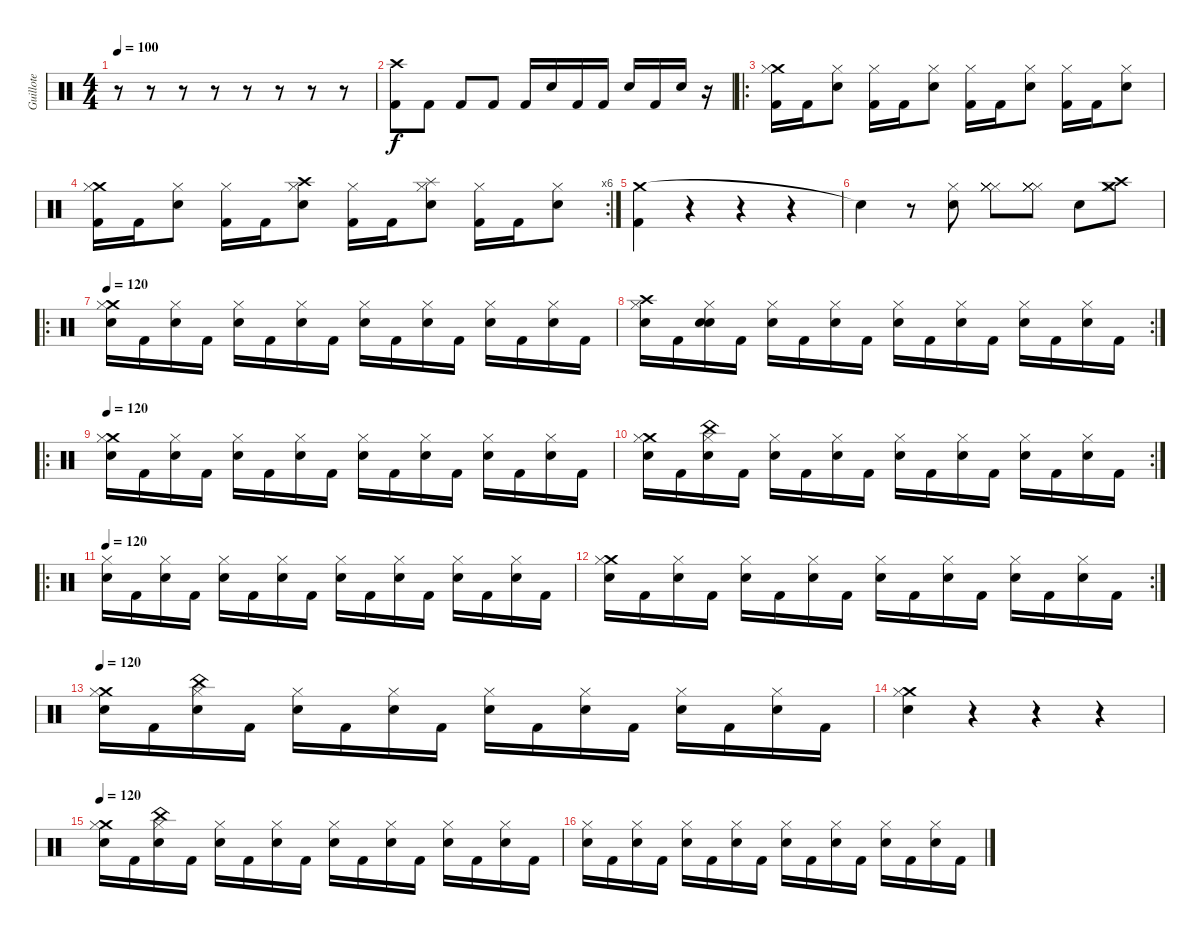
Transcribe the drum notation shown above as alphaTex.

\track ("Guillote" "Guillote") {instrument percussion}
\staff {score}
\articulation defaults
\ts (4 4)
\tempo 100
\clef neutral
\ks c
r.8{dy f} r.8 r.8 r.8 r.8 r.8 r.8 r.8 |
("Crash high (hit)" "Kick (hit) 2").8 "Kick (hit) 2".8 "Kick (hit) 2".8 "Kick (hit) 2".8 "Kick (hit) 2".16 "Electric Snare (hit)".16 "Kick (hit) 2".16 "Kick (hit) 2".16 "Electric Snare (hit)".16 "Kick (hit) 2".16 "Electric Snare (hit)".16 r.16 |
\ro
("Crash medium (hit)" "Hi-Hat (closed)" "Kick (hit) 2").16 "Kick (hit) 2".16 ("Hi-Hat (closed)" "Electric Snare (hit)").8 ("Hi-Hat (closed)" "Kick (hit) 2").16 "Kick (hit) 2".16 ("Hi-Hat (closed)" "Electric Snare (hit)").8 ("Hi-Hat (closed)" "Kick (hit) 2").16 "Kick (hit) 2".16 ("Hi-Hat (closed)" "Electric Snare (hit)").8 ("Hi-Hat (closed)" "Kick (hit) 2").16 "Kick (hit) 2".16 ("Hi-Hat (closed)" "Electric Snare (hit)").8 |
\rc 6
("Crash medium (hit)" "Hi-Hat (closed)" "Kick (hit) 2").16 "Kick (hit) 2".16 ("Hi-Hat (closed)" "Electric Snare (hit)").8 ("Hi-Hat (closed)" "Kick (hit) 2").16 "Kick (hit) 2".16 ("Crash high (hit)" "Hi-Hat (closed)" "Electric Snare (hit)").8 ("Hi-Hat (closed)" "Kick (hit) 2").16 "Kick (hit) 2".16 ("Splash (hit)" "Hi-Hat (closed)" "Electric Snare (hit)").8 ("Hi-Hat (closed)" "Kick (hit) 2").16 "Kick (hit) 2".16 ("Hi-Hat (closed)" "Electric Snare (hit)").8 |
("Crash medium (hit)" "Kick (hit) 2").4 r.4 r.4 r.4 |
"Snare (hit)"{t}.4 r.8 ("Hi-Hat (closed)" "Electric Snare (hit)").8 ("Hi-Hat (closed)" "Hi-Hat (closed)" "Hi-Hat (closed)" "Hi-Hat (closed)").8 ("Hi-Hat (closed)" "Hi-Hat (closed)" "Hi-Hat (closed)" "Hi-Hat (closed)").8 "Electric Snare (hit)".8 ("Crash medium (hit)" "Crash high (hit)" "Hi-Hat (closed)").8 |
\ro
\tempo 120
("Crash medium (hit)" "Hi-Hat (closed)" "Electric Snare (hit)").16 "Kick (hit) 2".16 ("Hi-Hat (closed)" "Electric Snare (hit)").16 "Kick (hit) 2".16 ("Hi-Hat (closed)" "Electric Snare (hit)").16 "Kick (hit) 2".16 ("Hi-Hat (closed)" "Electric Snare (hit)").16 "Kick (hit) 2".16 ("Hi-Hat (closed)" "Electric Snare (hit)").16 "Kick (hit) 2".16 ("Hi-Hat (closed)" "Electric Snare (hit)").16 "Kick (hit) 2".16 ("Hi-Hat (closed)" "Electric Snare (hit)").16 "Kick (hit) 2".16 ("Hi-Hat (closed)" "Electric Snare (hit)").16 "Kick (hit) 2".16 |
\rc 2
("Crash high (hit)" "Hi-Hat (closed)" "Electric Snare (hit)").16 "Kick (hit) 2".16 ("Hi-Hat (closed)" "Electric Snare (hit)" "Electric Snare (hit)").16 "Kick (hit) 2".16 ("Hi-Hat (closed)" "Electric Snare (hit)").16 "Kick (hit) 2".16 ("Hi-Hat (closed)" "Electric Snare (hit)").16 "Kick (hit) 2".16 ("Hi-Hat (closed)" "Electric Snare (hit)").16 "Kick (hit) 2".16 ("Hi-Hat (closed)" "Electric Snare (hit)").16 "Kick (hit) 2".16 ("Hi-Hat (closed)" "Electric Snare (hit)").16 "Kick (hit) 2".16 ("Hi-Hat (closed)" "Electric Snare (hit)").16 "Kick (hit) 2".16 |
\ro
\tempo 120
("Crash medium (hit)" "Hi-Hat (closed)" "Electric Snare (hit)").16 "Kick (hit) 2".16 ("Hi-Hat (closed)" "Electric Snare (hit)").16 "Kick (hit) 2".16 ("Hi-Hat (closed)" "Electric Snare (hit)").16 "Kick (hit) 2".16 ("Hi-Hat (closed)" "Electric Snare (hit)").16 "Kick (hit) 2".16 ("Hi-Hat (closed)" "Electric Snare (hit)").16 "Kick (hit) 2".16 ("Hi-Hat (closed)" "Electric Snare (hit)").16 "Kick (hit) 2".16 ("Hi-Hat (closed)" "Electric Snare (hit)").16 "Kick (hit) 2".16 ("Hi-Hat (closed)" "Electric Snare (hit)").16 "Kick (hit) 2".16 |
\rc 2
("Electric Snare (hit)" "Crash medium (hit)" "Hi-Hat (closed)").16 "Kick (hit) 2".16 ("Hi-Hat (closed)" "Electric Snare (hit)" "China (hit)").16 "Kick (hit) 2".16 ("Electric Snare (hit)" "Hi-Hat (closed)").16 "Kick (hit) 2".16 ("Electric Snare (hit)" "Hi-Hat (closed)").16 "Kick (hit) 2".16 ("Electric Snare (hit)" "Hi-Hat (closed)").16 "Kick (hit) 2".16 ("Hi-Hat (closed)" "Electric Snare (hit)").16 "Kick (hit) 2".16 ("Hi-Hat (closed)" "Electric Snare (hit)").16 "Kick (hit) 2".16 ("Hi-Hat (closed)" "Electric Snare (hit)").16 "Kick (hit) 2".16 |
\ro
\tempo 120
("Electric Snare (hit)" "Hi-Hat (closed)").16 "Kick (hit) 2".16 ("Hi-Hat (closed)" "Electric Snare (hit)").16 "Kick (hit) 2".16 ("Electric Snare (hit)" "Hi-Hat (closed)").16 "Kick (hit) 2".16 ("Electric Snare (hit)" "Hi-Hat (closed)").16 "Kick (hit) 2".16 ("Electric Snare (hit)" "Hi-Hat (closed)").16 "Kick (hit) 2".16 ("Hi-Hat (closed)" "Electric Snare (hit)").16 "Kick (hit) 2".16 ("Hi-Hat (closed)" "Electric Snare (hit)").16 "Kick (hit) 2".16 ("Hi-Hat (closed)" "Electric Snare (hit)").16 "Kick (hit) 2".16 |
\rc 2
("Electric Snare (hit)" "Crash medium (hit)" "Hi-Hat (closed)").16 "Kick (hit) 2".16 ("Hi-Hat (closed)" "Electric Snare (hit)").16 "Kick (hit) 2".16 ("Electric Snare (hit)" "Hi-Hat (closed)").16 "Kick (hit) 2".16 ("Electric Snare (hit)" "Hi-Hat (closed)").16 "Kick (hit) 2".16 ("Electric Snare (hit)" "Hi-Hat (closed)").16 "Kick (hit) 2".16 ("Hi-Hat (closed)" "Electric Snare (hit)").16 "Kick (hit) 2".16 ("Hi-Hat (closed)" "Electric Snare (hit)").16 "Kick (hit) 2".16 ("Hi-Hat (closed)" "Electric Snare (hit)").16 "Kick (hit) 2".16 |
\tempo 120
("Electric Snare (hit)" "Crash medium (hit)" "Hi-Hat (closed)").16 "Kick (hit) 2".16 ("Hi-Hat (closed)" "Electric Snare (hit)" "China (hit)").16 "Kick (hit) 2".16 ("Electric Snare (hit)" "Hi-Hat (closed)").16 "Kick (hit) 2".16 ("Electric Snare (hit)" "Hi-Hat (closed)").16 "Kick (hit) 2".16 ("Electric Snare (hit)" "Hi-Hat (closed)").16 "Kick (hit) 2".16 ("Hi-Hat (closed)" "Electric Snare (hit)").16 "Kick (hit) 2".16 ("Hi-Hat (closed)" "Electric Snare (hit)").16 "Kick (hit) 2".16 ("Hi-Hat (closed)" "Electric Snare (hit)").16 "Kick (hit) 2".16 |
("Electric Snare (hit)" "Crash medium (hit)" "Hi-Hat (closed)").4 r.4 r.4 r.4 |
\tempo 120
("Electric Snare (hit)" "Crash medium (hit)" "Hi-Hat (closed)").16 "Kick (hit) 2".16 ("Hi-Hat (closed)" "Electric Snare (hit)" "China (hit)").16 "Kick (hit) 2".16 ("Electric Snare (hit)" "Hi-Hat (closed)").16 "Kick (hit) 2".16 ("Electric Snare (hit)" "Hi-Hat (closed)").16 "Kick (hit) 2".16 ("Electric Snare (hit)" "Hi-Hat (closed)").16 "Kick (hit) 2".16 ("Hi-Hat (closed)" "Electric Snare (hit)").16 "Kick (hit) 2".16 ("Hi-Hat (closed)" "Electric Snare (hit)").16 "Kick (hit) 2".16 ("Hi-Hat (closed)" "Electric Snare (hit)").16 "Kick (hit) 2".16 |
("Electric Snare (hit)" "Hi-Hat (closed)").16 "Kick (hit) 2".16 ("Hi-Hat (closed)" "Electric Snare (hit)").16 "Kick (hit) 2".16 ("Electric Snare (hit)" "Hi-Hat (closed)").16 "Kick (hit) 2".16 ("Electric Snare (hit)" "Hi-Hat (closed)").16 "Kick (hit) 2".16 ("Electric Snare (hit)" "Hi-Hat (closed)").16 "Kick (hit) 2".16 ("Hi-Hat (closed)" "Electric Snare (hit)").16 "Kick (hit) 2".16 ("Hi-Hat (closed)" "Electric Snare (hit)").16 "Kick (hit) 2".16 ("Hi-Hat (closed)" "Electric Snare (hit)").16 "Kick (hit) 2".16
